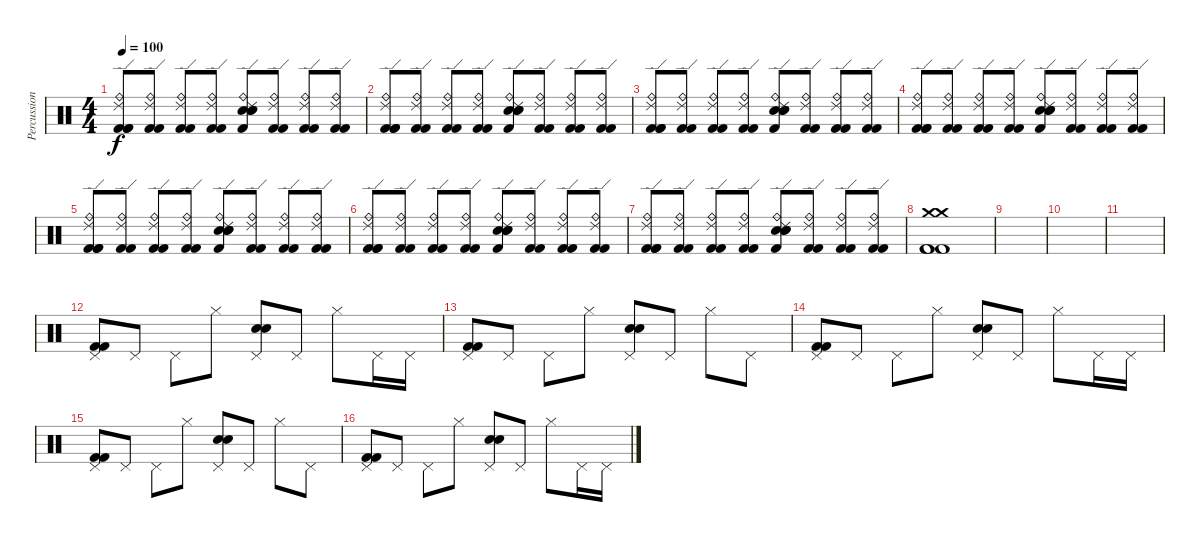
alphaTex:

\track ("Percussioni" "Percussion") {instrument percussion}
\staff {score}
\articulation defaults
\ts (4 4)
\tempo 100
\clef neutral
\ks c
("Ride (edge) 2" "Ride (bell)" "Kick (hit) 2" "Kick (hit) 2" "Kick (hit) 2").8{dy f} ("Ride (edge) 2" "Ride (bell)" "Kick (hit) 2" "Kick (hit) 2").8 ("Ride (edge) 2" "Ride (bell)" "Kick (hit) 2" "Kick (hit) 2").8 ("Ride (edge) 2" "Ride (bell)" "Kick (hit) 2" "Kick (hit) 2").8 ("Ride (edge) 2" "Ride (bell)" "Snare (hit) 2" "Snare (hit) 2" "Snare (hit) 2" "Kick (hit) 2").8 ("Ride (edge) 2" "Ride (bell)" "Kick (hit) 2" "Kick (hit) 2").8 ("Ride (edge) 2" "Ride (bell)" "Kick (hit) 2" "Kick (hit) 2").8 ("Ride (edge) 2" "Ride (bell)" "Kick (hit) 2" "Kick (hit) 2").8 |
("Ride (edge) 2" "Ride (bell)" "Kick (hit) 2" "Kick (hit) 2" "Kick (hit) 2").8 ("Ride (edge) 2" "Ride (bell)" "Kick (hit) 2" "Kick (hit) 2").8 ("Ride (edge) 2" "Ride (bell)" "Kick (hit) 2" "Kick (hit) 2").8 ("Ride (edge) 2" "Ride (bell)" "Kick (hit) 2" "Kick (hit) 2").8 ("Ride (edge) 2" "Ride (bell)" "Snare (hit) 2" "Snare (hit) 2" "Snare (hit) 2" "Kick (hit) 2").8 ("Ride (edge) 2" "Ride (bell)" "Kick (hit) 2" "Kick (hit) 2").8 ("Ride (edge) 2" "Ride (bell)" "Kick (hit) 2" "Kick (hit) 2").8 ("Ride (edge) 2" "Ride (bell)" "Kick (hit) 2" "Kick (hit) 2").8 |
("Ride (edge) 2" "Ride (bell)" "Kick (hit) 2" "Kick (hit) 2" "Kick (hit) 2").8 ("Ride (edge) 2" "Ride (bell)" "Kick (hit) 2" "Kick (hit) 2").8 ("Ride (edge) 2" "Ride (bell)" "Kick (hit) 2" "Kick (hit) 2").8 ("Ride (edge) 2" "Ride (bell)" "Kick (hit) 2" "Kick (hit) 2").8 ("Ride (edge) 2" "Ride (bell)" "Snare (hit) 2" "Snare (hit) 2" "Snare (hit) 2" "Kick (hit) 2").8 ("Ride (edge) 2" "Ride (bell)" "Kick (hit) 2" "Kick (hit) 2").8 ("Ride (edge) 2" "Ride (bell)" "Kick (hit) 2" "Kick (hit) 2").8 ("Ride (edge) 2" "Ride (bell)" "Kick (hit) 2" "Kick (hit) 2").8 |
("Ride (edge) 2" "Ride (bell)" "Kick (hit) 2" "Kick (hit) 2" "Kick (hit) 2").8 ("Ride (edge) 2" "Ride (bell)" "Kick (hit) 2" "Kick (hit) 2").8 ("Ride (edge) 2" "Ride (bell)" "Kick (hit) 2" "Kick (hit) 2").8 ("Ride (edge) 2" "Ride (bell)" "Kick (hit) 2" "Kick (hit) 2").8 ("Ride (edge) 2" "Ride (bell)" "Snare (hit) 2" "Snare (hit) 2" "Snare (hit) 2" "Kick (hit) 2").8 ("Ride (edge) 2" "Ride (bell)" "Kick (hit) 2" "Kick (hit) 2").8 ("Ride (edge) 2" "Ride (bell)" "Kick (hit) 2" "Kick (hit) 2").8 ("Ride (edge) 2" "Ride (bell)" "Kick (hit) 2" "Kick (hit) 2").8 |
("Ride (edge) 2" "Ride (bell)" "Kick (hit) 2" "Kick (hit) 2" "Kick (hit) 2").8 ("Ride (edge) 2" "Ride (bell)" "Kick (hit) 2" "Kick (hit) 2").8 ("Ride (edge) 2" "Ride (bell)" "Kick (hit) 2" "Kick (hit) 2").8 ("Ride (edge) 2" "Ride (bell)" "Kick (hit) 2" "Kick (hit) 2").8 ("Ride (edge) 2" "Ride (bell)" "Snare (hit) 2" "Snare (hit) 2" "Snare (hit) 2" "Kick (hit) 2").8 ("Ride (edge) 2" "Ride (bell)" "Kick (hit) 2" "Kick (hit) 2").8 ("Ride (edge) 2" "Ride (bell)" "Kick (hit) 2" "Kick (hit) 2").8 ("Ride (edge) 2" "Ride (bell)" "Kick (hit) 2" "Kick (hit) 2").8 |
("Ride (edge) 2" "Ride (bell)" "Kick (hit) 2" "Kick (hit) 2" "Kick (hit) 2").8 ("Ride (edge) 2" "Ride (bell)" "Kick (hit) 2" "Kick (hit) 2").8 ("Ride (edge) 2" "Ride (bell)" "Kick (hit) 2" "Kick (hit) 2").8 ("Ride (edge) 2" "Ride (bell)" "Kick (hit) 2" "Kick (hit) 2").8 ("Ride (edge) 2" "Ride (bell)" "Snare (hit) 2" "Snare (hit) 2" "Snare (hit) 2" "Kick (hit) 2").8 ("Ride (edge) 2" "Ride (bell)" "Kick (hit) 2" "Kick (hit) 2").8 ("Ride (edge) 2" "Ride (bell)" "Kick (hit) 2" "Kick (hit) 2").8 ("Ride (edge) 2" "Ride (bell)" "Kick (hit) 2" "Kick (hit) 2").8 |
("Ride (edge) 2" "Ride (bell)" "Kick (hit) 2" "Kick (hit) 2" "Kick (hit) 2").8 ("Ride (edge) 2" "Ride (bell)" "Kick (hit) 2" "Kick (hit) 2").8 ("Ride (edge) 2" "Ride (bell)" "Kick (hit) 2" "Kick (hit) 2").8 ("Ride (edge) 2" "Ride (bell)" "Kick (hit) 2" "Kick (hit) 2").8 ("Ride (edge) 2" "Ride (bell)" "Snare (hit) 2" "Snare (hit) 2" "Snare (hit) 2" "Kick (hit) 2").8 ("Ride (edge) 2" "Ride (bell)" "Kick (hit) 2" "Kick (hit) 2").8 ("Ride (edge) 2" "Ride (bell)" "Kick (hit) 2" "Kick (hit) 2").8 ("Ride (edge) 2" "Ride (bell)" "Kick (hit) 2" "Kick (hit) 2").8 |
("Crash medium (hit)" "Kick (hit) 2" "Kick (hit) 2" "Crash medium (hit)" "Kick (hit) 2").1 |
|
|
|
("Pedal Hi-Hat (hit)" "Kick (hit) 2" "Kick (hit) 2").8 "Pedal Hi-Hat (hit)".8 "Pedal Hi-Hat (hit)".8 "Hi-Hat (closed)".8 ("Pedal Hi-Hat (hit)" "Snare (hit) 2" "Snare (hit) 2").8 "Pedal Hi-Hat (hit)".8 "Hi-Hat (closed)".8 "Pedal Hi-Hat (hit)".16 "Pedal Hi-Hat (hit)".16 |
("Pedal Hi-Hat (hit)" "Kick (hit) 2" "Kick (hit) 2").8 "Pedal Hi-Hat (hit)".8 "Pedal Hi-Hat (hit)".8 "Hi-Hat (closed)".8 ("Pedal Hi-Hat (hit)" "Snare (hit) 2" "Snare (hit) 2").8 "Pedal Hi-Hat (hit)".8 "Hi-Hat (closed)".8 "Pedal Hi-Hat (hit)".8 |
("Pedal Hi-Hat (hit)" "Kick (hit) 2" "Kick (hit) 2").8 "Pedal Hi-Hat (hit)".8 "Pedal Hi-Hat (hit)".8 "Hi-Hat (closed)".8 ("Pedal Hi-Hat (hit)" "Snare (hit) 2" "Snare (hit) 2").8 "Pedal Hi-Hat (hit)".8 "Hi-Hat (closed)".8 "Pedal Hi-Hat (hit)".16 "Pedal Hi-Hat (hit)".16 |
("Pedal Hi-Hat (hit)" "Kick (hit) 2" "Kick (hit) 2").8 "Pedal Hi-Hat (hit)".8 "Pedal Hi-Hat (hit)".8 "Hi-Hat (closed)".8 ("Pedal Hi-Hat (hit)" "Snare (hit) 2" "Snare (hit) 2").8 "Pedal Hi-Hat (hit)".8 "Hi-Hat (closed)".8 "Pedal Hi-Hat (hit)".8 |
("Pedal Hi-Hat (hit)" "Kick (hit) 2" "Kick (hit) 2").8 "Pedal Hi-Hat (hit)".8 "Pedal Hi-Hat (hit)".8 "Hi-Hat (closed)".8 ("Pedal Hi-Hat (hit)" "Snare (hit) 2" "Snare (hit) 2").8 "Pedal Hi-Hat (hit)".8 "Hi-Hat (closed)".8 "Pedal Hi-Hat (hit)".16 "Pedal Hi-Hat (hit)".16
